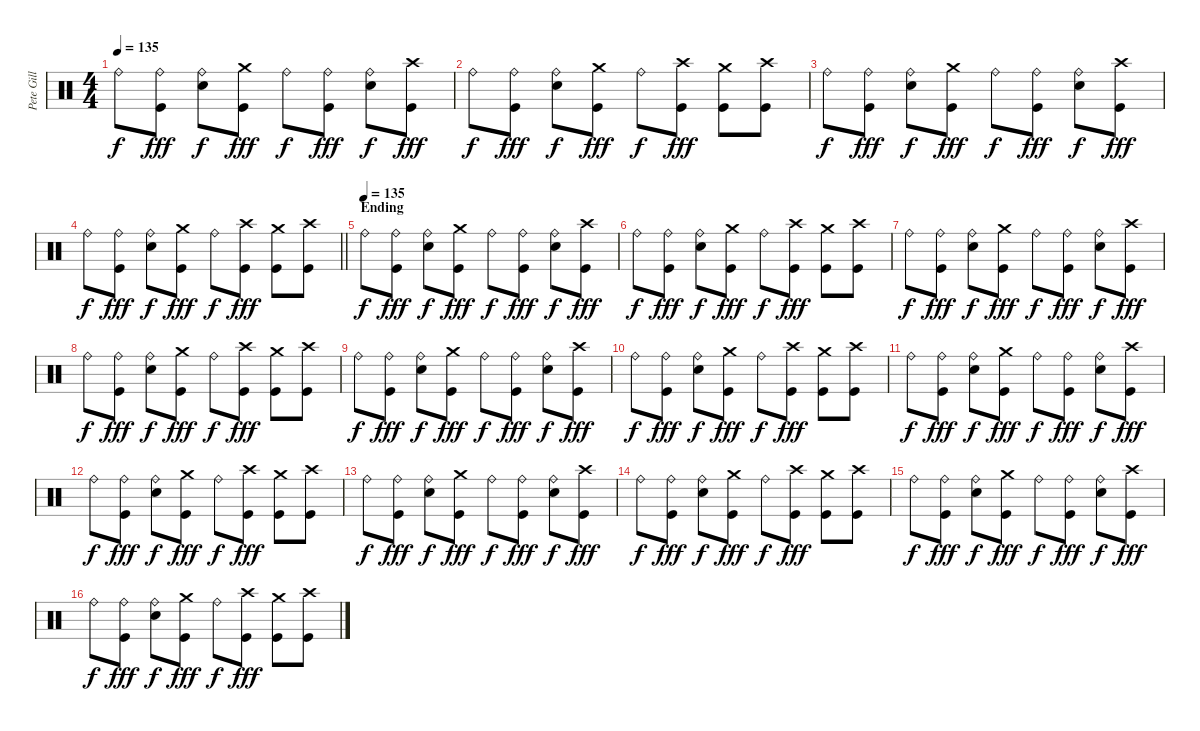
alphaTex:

\track ("Pete Gill" "Pete Gill") {instrument percussion}
\staff {score}
\articulation defaults
\ts (4 4)
\tempo 135
\clef neutral
\ks c "Ride (bell)".8{dy f}
("Ride (bell)" "Kick (hit)").8{dy fff} ("Ride (bell)" "Electric Snare (hit)").8{dy f} ("Crash medium (hit)" "Kick (hit)").8{dy fff} "Ride (bell)".8{dy f} ("Ride (bell)" "Kick (hit)").8{dy fff} ("Ride (bell)" "Electric Snare (hit)").8{dy f} ("Crash high (hit)" "Kick (hit)").8{dy fff} |
"Ride (bell)".8{dy f} ("Ride (bell)" "Kick (hit)").8{dy fff} ("Ride (bell)" "Electric Snare (hit)").8{dy f} ("Crash medium (hit)" "Kick (hit)").8{dy fff} "Ride (bell)".8{dy f} ("Crash high (hit)" "Kick (hit)").8{dy fff} ("Crash medium (hit)" "Kick (hit)").8 ("Crash high (hit)" "Kick (hit)").8 |
"Ride (bell)".8{dy f} ("Ride (bell)" "Kick (hit)").8{dy fff} ("Ride (bell)" "Electric Snare (hit)").8{dy f} ("Crash medium (hit)" "Kick (hit)").8{dy fff} "Ride (bell)".8{dy f} ("Ride (bell)" "Kick (hit)").8{dy fff} ("Ride (bell)" "Electric Snare (hit)").8{dy f} ("Crash high (hit)" "Kick (hit)").8{dy fff} |
\barLineRight lightlight "Ride (bell)".8{dy f}
("Ride (bell)" "Kick (hit)").8{dy fff} ("Ride (bell)" "Electric Snare (hit)").8{dy f} ("Crash medium (hit)" "Kick (hit)").8{dy fff} "Ride (bell)".8{dy f} ("Crash high (hit)" "Kick (hit)").8{dy fff} ("Crash medium (hit)" "Kick (hit)").8 ("Crash high (hit)" "Kick (hit)").8 |
\section ("" "Ending")
\tempo (135)
"Ride (bell)".8{dy f} ("Ride (bell)" "Kick (hit)").8{dy fff} ("Ride (bell)" "Electric Snare (hit)").8{dy f} ("Crash medium (hit)" "Kick (hit)").8{dy fff} "Ride (bell)".8{dy f} ("Ride (bell)" "Kick (hit)").8{dy fff} ("Ride (bell)" "Electric Snare (hit)").8{dy f} ("Crash high (hit)" "Kick (hit)").8{dy fff} |
"Ride (bell)".8{dy f} ("Ride (bell)" "Kick (hit)").8{dy fff} ("Ride (bell)" "Electric Snare (hit)").8{dy f} ("Crash medium (hit)" "Kick (hit)").8{dy fff} "Ride (bell)".8{dy f} ("Crash high (hit)" "Kick (hit)").8{dy fff} ("Crash medium (hit)" "Kick (hit)").8 ("Crash high (hit)" "Kick (hit)").8 |
"Ride (bell)".8{dy f} ("Ride (bell)" "Kick (hit)").8{dy fff} ("Ride (bell)" "Electric Snare (hit)").8{dy f} ("Crash medium (hit)" "Kick (hit)").8{dy fff} "Ride (bell)".8{dy f} ("Ride (bell)" "Kick (hit)").8{dy fff} ("Ride (bell)" "Electric Snare (hit)").8{dy f} ("Crash high (hit)" "Kick (hit)").8{dy fff} |
"Ride (bell)".8{dy f} ("Ride (bell)" "Kick (hit)").8{dy fff} ("Ride (bell)" "Electric Snare (hit)").8{dy f} ("Crash medium (hit)" "Kick (hit)").8{dy fff} "Ride (bell)".8{dy f} ("Crash high (hit)" "Kick (hit)").8{dy fff} ("Crash medium (hit)" "Kick (hit)").8 ("Crash high (hit)" "Kick (hit)").8 |
"Ride (bell)".8{dy f volume 9} ("Ride (bell)" "Kick (hit)").8{dy fff} ("Ride (bell)" "Electric Snare (hit)").8{dy f} ("Crash medium (hit)" "Kick (hit)").8{dy fff} "Ride (bell)".8{dy f} ("Ride (bell)" "Kick (hit)").8{dy fff} ("Ride (bell)" "Electric Snare (hit)").8{dy f} ("Crash high (hit)" "Kick (hit)").8{dy fff} |
"Ride (bell)".8{dy f} ("Ride (bell)" "Kick (hit)").8{dy fff} ("Ride (bell)" "Electric Snare (hit)").8{dy f} ("Crash medium (hit)" "Kick (hit)").8{dy fff} "Ride (bell)".8{dy f} ("Crash high (hit)" "Kick (hit)").8{dy fff} ("Crash medium (hit)" "Kick (hit)").8 ("Crash high (hit)" "Kick (hit)").8 |
"Ride (bell)".8{dy f} ("Ride (bell)" "Kick (hit)").8{dy fff} ("Ride (bell)" "Electric Snare (hit)").8{dy f} ("Crash medium (hit)" "Kick (hit)").8{dy fff} "Ride (bell)".8{dy f} ("Ride (bell)" "Kick (hit)").8{dy fff} ("Ride (bell)" "Electric Snare (hit)").8{dy f} ("Crash high (hit)" "Kick (hit)").8{dy fff} |
"Ride (bell)".8{dy f} ("Ride (bell)" "Kick (hit)").8{dy fff} ("Ride (bell)" "Electric Snare (hit)").8{dy f} ("Crash medium (hit)" "Kick (hit)").8{dy fff} "Ride (bell)".8{dy f} ("Crash high (hit)" "Kick (hit)").8{dy fff} ("Crash medium (hit)" "Kick (hit)").8 ("Crash high (hit)" "Kick (hit)").8 |
"Ride (bell)".8{dy f volume 6} ("Ride (bell)" "Kick (hit)").8{dy fff} ("Ride (bell)" "Electric Snare (hit)").8{dy f} ("Crash medium (hit)" "Kick (hit)").8{dy fff} "Ride (bell)".8{dy f} ("Ride (bell)" "Kick (hit)").8{dy fff} ("Ride (bell)" "Electric Snare (hit)").8{dy f} ("Crash high (hit)" "Kick (hit)").8{dy fff} |
"Ride (bell)".8{dy f} ("Ride (bell)" "Kick (hit)").8{dy fff} ("Ride (bell)" "Electric Snare (hit)").8{dy f} ("Crash medium (hit)" "Kick (hit)").8{dy fff} "Ride (bell)".8{dy f} ("Crash high (hit)" "Kick (hit)").8{dy fff} ("Crash medium (hit)" "Kick (hit)").8 ("Crash high (hit)" "Kick (hit)").8 |
"Ride (bell)".8{dy f} ("Ride (bell)" "Kick (hit)").8{dy fff} ("Ride (bell)" "Electric Snare (hit)").8{dy f} ("Crash medium (hit)" "Kick (hit)").8{dy fff} "Ride (bell)".8{dy f} ("Ride (bell)" "Kick (hit)").8{dy fff} ("Ride (bell)" "Electric Snare (hit)").8{dy f} ("Crash high (hit)" "Kick (hit)").8{dy fff} |
"Ride (bell)".8{dy f volume 4} ("Ride (bell)" "Kick (hit)").8{dy fff} ("Ride (bell)" "Electric Snare (hit)").8{dy f} ("Crash medium (hit)" "Kick (hit)").8{dy fff} "Ride (bell)".8{dy f} ("Crash high (hit)" "Kick (hit)").8{dy fff} ("Crash medium (hit)" "Kick (hit)").8 ("Crash high (hit)" "Kick (hit)").8
